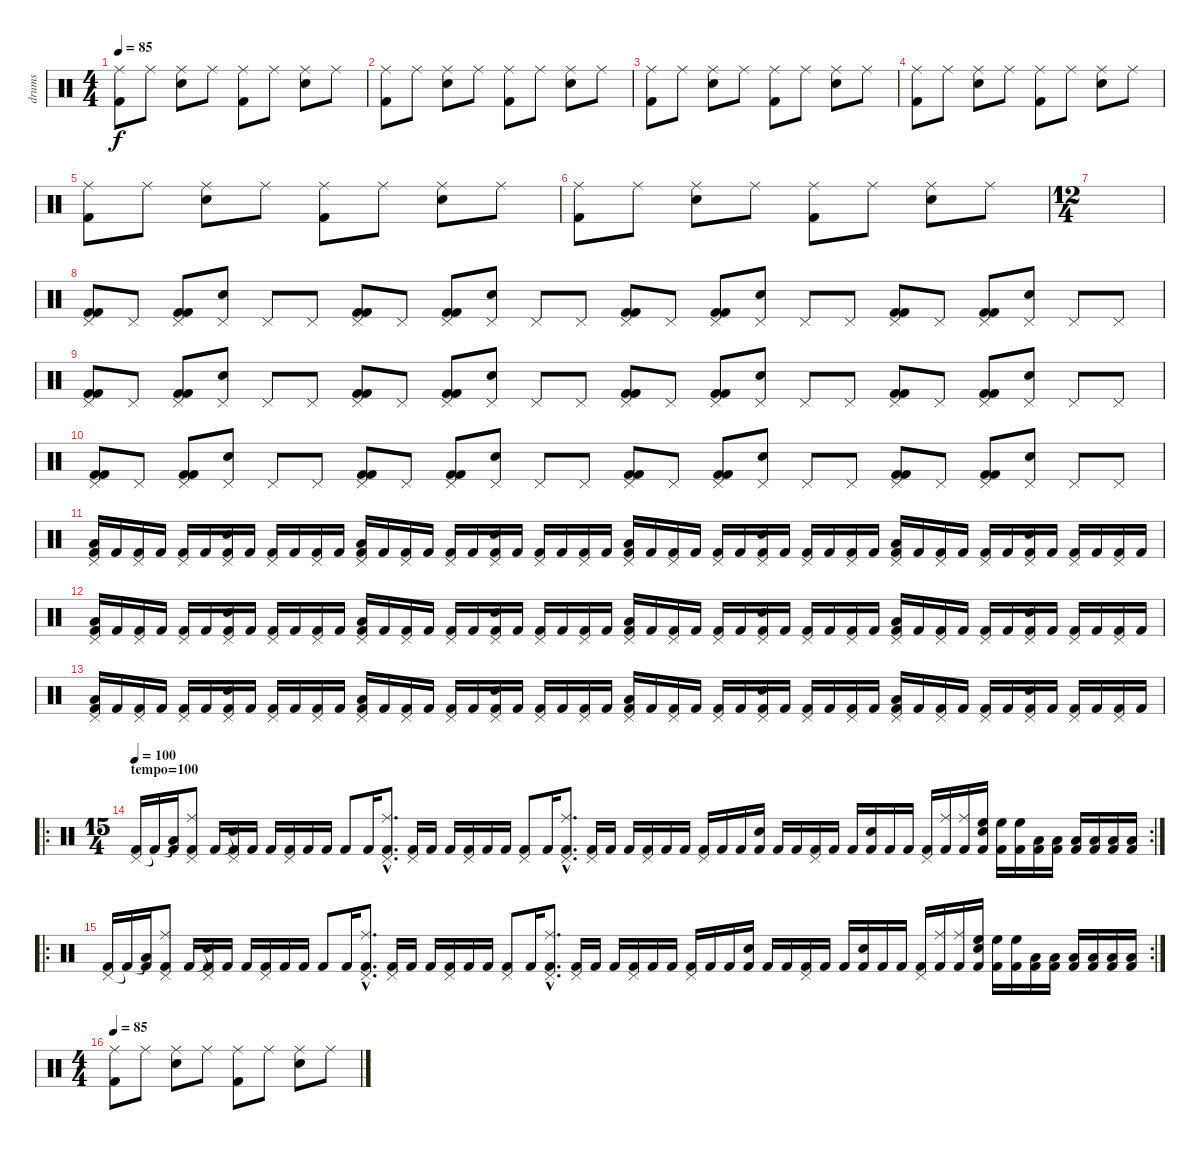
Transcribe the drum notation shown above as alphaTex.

\track ("drums" "drums") {instrument percussion}
\staff {score}
\articulation defaults
\ts (4 4)
\tempo 85
\clef neutral
\ks c
("Ride (middle)" "Kick (hit) 2").8{dy f} "Ride (middle)".8 ("Snare (hit) 2" "Ride (middle)").8 "Ride (middle)".8 ("Ride (middle)" "Kick (hit) 2").8 "Ride (middle)".8 ("Snare (hit) 2" "Ride (middle)").8 "Ride (middle)".8 |
("Ride (middle)" "Kick (hit) 2").8 "Ride (middle)".8 ("Snare (hit) 2" "Ride (middle)").8 "Ride (middle)".8 ("Ride (middle)" "Kick (hit) 2").8 "Ride (middle)".8 ("Snare (hit) 2" "Ride (middle)").8 "Ride (middle)".8 |
("Ride (middle)" "Kick (hit) 2").8 "Ride (middle)".8 ("Snare (hit) 2" "Ride (middle)").8 "Ride (middle)".8 ("Ride (middle)" "Kick (hit) 2").8 "Ride (middle)".8 ("Snare (hit) 2" "Ride (middle)").8 "Ride (middle)".8 |
("Ride (middle)" "Kick (hit) 2").8 "Ride (middle)".8 ("Snare (hit) 2" "Ride (middle)").8 "Ride (middle)".8 ("Ride (middle)" "Kick (hit) 2").8 "Ride (middle)".8 ("Snare (hit) 2" "Ride (middle)").8 "Ride (middle)".8 |
("Ride (middle)" "Kick (hit) 2").8 "Ride (middle)".8 ("Snare (hit) 2" "Ride (middle)").8 "Ride (middle)".8 ("Ride (middle)" "Kick (hit) 2").8 "Ride (middle)".8 ("Snare (hit) 2" "Ride (middle)").8 "Ride (middle)".8 |
("Ride (middle)" "Kick (hit) 2").8 "Ride (middle)".8 ("Snare (hit) 2" "Ride (middle)").8 "Ride (middle)".8 ("Ride (middle)" "Kick (hit) 2").8 "Ride (middle)".8 ("Snare (hit) 2" "Ride (middle)").8 "Ride (middle)".8 |
\ts (12 4)
|
("Pedal Hi-Hat (hit)" "Kick (hit) 2" "Kick (hit) 2").8 "Pedal Hi-Hat (hit)".8 ("Pedal Hi-Hat (hit)" "Kick (hit) 2" "Kick (hit) 2").8 ("Snare (hit) 2" "Pedal Hi-Hat (hit)").8 "Pedal Hi-Hat (hit)".8 "Pedal Hi-Hat (hit)".8 ("Pedal Hi-Hat (hit)" "Kick (hit) 2" "Kick (hit) 2").8 "Pedal Hi-Hat (hit)".8 ("Pedal Hi-Hat (hit)" "Kick (hit) 2" "Kick (hit) 2").8 ("Snare (hit) 2" "Pedal Hi-Hat (hit)").8 "Pedal Hi-Hat (hit)".8 "Pedal Hi-Hat (hit)".8 ("Pedal Hi-Hat (hit)" "Kick (hit) 2" "Kick (hit) 2").8 "Pedal Hi-Hat (hit)".8 ("Pedal Hi-Hat (hit)" "Kick (hit) 2" "Kick (hit) 2").8 ("Snare (hit) 2" "Pedal Hi-Hat (hit)").8 "Pedal Hi-Hat (hit)".8 "Pedal Hi-Hat (hit)".8 ("Pedal Hi-Hat (hit)" "Kick (hit) 2" "Kick (hit) 2").8 "Pedal Hi-Hat (hit)".8 ("Pedal Hi-Hat (hit)" "Kick (hit) 2" "Kick (hit) 2").8 ("Snare (hit) 2" "Pedal Hi-Hat (hit)").8 "Pedal Hi-Hat (hit)".8 "Pedal Hi-Hat (hit)".8 |
("Pedal Hi-Hat (hit)" "Kick (hit) 2" "Kick (hit) 2").8 "Pedal Hi-Hat (hit)".8 ("Pedal Hi-Hat (hit)" "Kick (hit) 2" "Kick (hit) 2").8 ("Snare (hit) 2" "Pedal Hi-Hat (hit)").8 "Pedal Hi-Hat (hit)".8 "Pedal Hi-Hat (hit)".8 ("Pedal Hi-Hat (hit)" "Kick (hit) 2" "Kick (hit) 2").8 "Pedal Hi-Hat (hit)".8 ("Pedal Hi-Hat (hit)" "Kick (hit) 2" "Kick (hit) 2").8 ("Snare (hit) 2" "Pedal Hi-Hat (hit)").8 "Pedal Hi-Hat (hit)".8 "Pedal Hi-Hat (hit)".8 ("Pedal Hi-Hat (hit)" "Kick (hit) 2" "Kick (hit) 2").8 "Pedal Hi-Hat (hit)".8 ("Pedal Hi-Hat (hit)" "Kick (hit) 2" "Kick (hit) 2").8 ("Snare (hit) 2" "Pedal Hi-Hat (hit)").8 "Pedal Hi-Hat (hit)".8 "Pedal Hi-Hat (hit)".8 ("Pedal Hi-Hat (hit)" "Kick (hit) 2" "Kick (hit) 2").8 "Pedal Hi-Hat (hit)".8 ("Pedal Hi-Hat (hit)" "Kick (hit) 2" "Kick (hit) 2").8 ("Snare (hit) 2" "Pedal Hi-Hat (hit)").8 "Pedal Hi-Hat (hit)".8 "Pedal Hi-Hat (hit)".8 |
("Pedal Hi-Hat (hit)" "Kick (hit) 2" "Kick (hit) 2").8 "Pedal Hi-Hat (hit)".8 ("Pedal Hi-Hat (hit)" "Kick (hit) 2" "Kick (hit) 2").8 ("Snare (hit) 2" "Pedal Hi-Hat (hit)").8 "Pedal Hi-Hat (hit)".8 "Pedal Hi-Hat (hit)".8 ("Pedal Hi-Hat (hit)" "Kick (hit) 2" "Kick (hit) 2").8 "Pedal Hi-Hat (hit)".8 ("Pedal Hi-Hat (hit)" "Kick (hit) 2" "Kick (hit) 2").8 ("Snare (hit) 2" "Pedal Hi-Hat (hit)").8 "Pedal Hi-Hat (hit)".8 "Pedal Hi-Hat (hit)".8 ("Pedal Hi-Hat (hit)" "Kick (hit) 2" "Kick (hit) 2").8 "Pedal Hi-Hat (hit)".8 ("Pedal Hi-Hat (hit)" "Kick (hit) 2" "Kick (hit) 2").8 ("Snare (hit) 2" "Pedal Hi-Hat (hit)").8 "Pedal Hi-Hat (hit)".8 "Pedal Hi-Hat (hit)".8 ("Pedal Hi-Hat (hit)" "Kick (hit) 2" "Kick (hit) 2").8 "Pedal Hi-Hat (hit)".8 ("Pedal Hi-Hat (hit)" "Kick (hit) 2" "Kick (hit) 2").8 ("Snare (hit) 2" "Pedal Hi-Hat (hit)").8 "Pedal Hi-Hat (hit)".8 "Pedal Hi-Hat (hit)".8 |
("Pedal Hi-Hat (hit)" "Low Tom (hit)" "Kick (hit) 2").16 "Kick (hit) 2".16 ("Pedal Hi-Hat (hit)" "Kick (hit) 2").16 "Kick (hit) 2".16 ("Pedal Hi-Hat (hit)" "Kick (hit) 2").16 "Kick (hit) 2".16 ("Snare (hit) 2" "Pedal Hi-Hat (hit)" "Kick (hit) 2").16 "Kick (hit) 2".16 ("Pedal Hi-Hat (hit)" "Kick (hit) 2").16 "Kick (hit) 2".16 ("Pedal Hi-Hat (hit)" "Kick (hit) 2").16 "Kick (hit) 2".16 ("Pedal Hi-Hat (hit)" "Low Tom (hit)" "Kick (hit) 2").16 "Kick (hit) 2".16 ("Pedal Hi-Hat (hit)" "Kick (hit) 2").16 "Kick (hit) 2".16 ("Pedal Hi-Hat (hit)" "Kick (hit) 2").16 "Kick (hit) 2".16 ("Snare (hit) 2" "Pedal Hi-Hat (hit)" "Kick (hit) 2").16 "Kick (hit) 2".16 ("Pedal Hi-Hat (hit)" "Kick (hit) 2").16 "Kick (hit) 2".16 ("Pedal Hi-Hat (hit)" "Kick (hit) 2").16 "Kick (hit) 2".16 ("Pedal Hi-Hat (hit)" "Low Tom (hit)" "Kick (hit) 2").16 "Kick (hit) 2".16 ("Pedal Hi-Hat (hit)" "Kick (hit) 2").16 "Kick (hit) 2".16 ("Pedal Hi-Hat (hit)" "Kick (hit) 2").16 "Kick (hit) 2".16 ("Snare (hit) 2" "Pedal Hi-Hat (hit)" "Kick (hit) 2").16 "Kick (hit) 2".16 ("Pedal Hi-Hat (hit)" "Kick (hit) 2").16 "Kick (hit) 2".16 ("Pedal Hi-Hat (hit)" "Kick (hit) 2").16 "Kick (hit) 2".16 ("Pedal Hi-Hat (hit)" "Low Tom (hit)" "Kick (hit) 2").16 "Kick (hit) 2".16 ("Pedal Hi-Hat (hit)" "Kick (hit) 2").16 "Kick (hit) 2".16 ("Pedal Hi-Hat (hit)" "Kick (hit) 2").16 "Kick (hit) 2".16 ("Snare (hit) 2" "Pedal Hi-Hat (hit)" "Kick (hit) 2").16 "Kick (hit) 2".16 ("Pedal Hi-Hat (hit)" "Kick (hit) 2").16 "Kick (hit) 2".16 ("Pedal Hi-Hat (hit)" "Kick (hit) 2").16 "Kick (hit) 2".16 |
("Pedal Hi-Hat (hit)" "Low Tom (hit)" "Kick (hit) 2").16 "Kick (hit) 2".16 ("Pedal Hi-Hat (hit)" "Kick (hit) 2").16 "Kick (hit) 2".16 ("Pedal Hi-Hat (hit)" "Kick (hit) 2").16 "Kick (hit) 2".16 ("Snare (hit) 2" "Pedal Hi-Hat (hit)" "Kick (hit) 2").16 "Kick (hit) 2".16 ("Pedal Hi-Hat (hit)" "Kick (hit) 2").16 "Kick (hit) 2".16 ("Pedal Hi-Hat (hit)" "Kick (hit) 2").16 "Kick (hit) 2".16 ("Pedal Hi-Hat (hit)" "Low Tom (hit)" "Kick (hit) 2").16 "Kick (hit) 2".16 ("Pedal Hi-Hat (hit)" "Kick (hit) 2").16 "Kick (hit) 2".16 ("Pedal Hi-Hat (hit)" "Kick (hit) 2").16 "Kick (hit) 2".16 ("Snare (hit) 2" "Pedal Hi-Hat (hit)" "Kick (hit) 2").16 "Kick (hit) 2".16 ("Pedal Hi-Hat (hit)" "Kick (hit) 2").16 "Kick (hit) 2".16 ("Pedal Hi-Hat (hit)" "Kick (hit) 2").16 "Kick (hit) 2".16 ("Pedal Hi-Hat (hit)" "Low Tom (hit)" "Kick (hit) 2").16 "Kick (hit) 2".16 ("Pedal Hi-Hat (hit)" "Kick (hit) 2").16 "Kick (hit) 2".16 ("Pedal Hi-Hat (hit)" "Kick (hit) 2").16 "Kick (hit) 2".16 ("Snare (hit) 2" "Pedal Hi-Hat (hit)" "Kick (hit) 2").16 "Kick (hit) 2".16 ("Pedal Hi-Hat (hit)" "Kick (hit) 2").16 "Kick (hit) 2".16 ("Pedal Hi-Hat (hit)" "Kick (hit) 2").16 "Kick (hit) 2".16 ("Pedal Hi-Hat (hit)" "Low Tom (hit)" "Kick (hit) 2").16 "Kick (hit) 2".16 ("Pedal Hi-Hat (hit)" "Kick (hit) 2").16 "Kick (hit) 2".16 ("Pedal Hi-Hat (hit)" "Kick (hit) 2").16 "Kick (hit) 2".16 ("Snare (hit) 2" "Pedal Hi-Hat (hit)" "Kick (hit) 2").16 "Kick (hit) 2".16 ("Pedal Hi-Hat (hit)" "Kick (hit) 2").16 "Kick (hit) 2".16 ("Pedal Hi-Hat (hit)" "Kick (hit) 2").16 "Kick (hit) 2".16 |
("Pedal Hi-Hat (hit)" "Low Tom (hit)" "Kick (hit) 2").16 "Kick (hit) 2".16 ("Pedal Hi-Hat (hit)" "Kick (hit) 2").16 "Kick (hit) 2".16 ("Pedal Hi-Hat (hit)" "Kick (hit) 2").16 "Kick (hit) 2".16 ("Snare (hit) 2" "Pedal Hi-Hat (hit)" "Kick (hit) 2").16 "Kick (hit) 2".16 ("Pedal Hi-Hat (hit)" "Kick (hit) 2").16 "Kick (hit) 2".16 ("Pedal Hi-Hat (hit)" "Kick (hit) 2").16 "Kick (hit) 2".16 ("Pedal Hi-Hat (hit)" "Low Tom (hit)" "Kick (hit) 2").16 "Kick (hit) 2".16 ("Pedal Hi-Hat (hit)" "Kick (hit) 2").16 "Kick (hit) 2".16 ("Pedal Hi-Hat (hit)" "Kick (hit) 2").16 "Kick (hit) 2".16 ("Snare (hit) 2" "Pedal Hi-Hat (hit)" "Kick (hit) 2").16 "Kick (hit) 2".16 ("Pedal Hi-Hat (hit)" "Kick (hit) 2").16 "Kick (hit) 2".16 ("Pedal Hi-Hat (hit)" "Kick (hit) 2").16 "Kick (hit) 2".16 ("Pedal Hi-Hat (hit)" "Low Tom (hit)" "Kick (hit) 2").16 "Kick (hit) 2".16 ("Pedal Hi-Hat (hit)" "Kick (hit) 2").16 "Kick (hit) 2".16 ("Pedal Hi-Hat (hit)" "Kick (hit) 2").16 "Kick (hit) 2".16 ("Snare (hit) 2" "Pedal Hi-Hat (hit)" "Kick (hit) 2").16 "Kick (hit) 2".16 ("Pedal Hi-Hat (hit)" "Kick (hit) 2").16 "Kick (hit) 2".16 ("Pedal Hi-Hat (hit)" "Kick (hit) 2").16 "Kick (hit) 2".16 ("Pedal Hi-Hat (hit)" "Low Tom (hit)" "Kick (hit) 2").16 "Kick (hit) 2".16 ("Pedal Hi-Hat (hit)" "Kick (hit) 2").16 "Kick (hit) 2".16 ("Pedal Hi-Hat (hit)" "Kick (hit) 2").16 "Kick (hit) 2".16 ("Snare (hit) 2" "Pedal Hi-Hat (hit)" "Kick (hit) 2").16 "Kick (hit) 2".16 ("Pedal Hi-Hat (hit)" "Kick (hit) 2").16 "Kick (hit) 2".16 ("Pedal Hi-Hat (hit)" "Kick (hit) 2").16 "Kick (hit) 2".16 |
\ro
\rc 2
\ts (15 4)
\section ("" "tempo=100")
\tempo 100
("Pedal Hi-Hat (hit)" "Kick (hit) 2").16 "Kick (hit) 2"{t}.16 ("Low Floor Tom (hit)"{t} "Kick (hit) 2").16 ("Ride (middle)" "Pedal Hi-Hat (hit)" "Kick (hit) 2").8 "Kick (hit) 2".16 ("Snare (hit)"{t} "Pedal Hi-Hat (hit)" "Kick (hit) 2").16 "Kick (hit) 2".16 "Kick (hit) 2".16 ("Pedal Hi-Hat (hit)" "Kick (hit) 2").16 "Kick (hit) 2".16 "Kick (hit) 2".16 "Kick (hit) 2".8 "Kick (hit) 2".16 ("Ride (middle)"{hac} "Pedal Hi-Hat (hit)"{hac} "Kick (hit) 2"{hac}).8{d} ("Pedal Hi-Hat (hit)" "Kick (hit) 2").16 "Kick (hit) 2".16 "Kick (hit) 2".16 ("Pedal Hi-Hat (hit)" "Kick (hit) 2").16 "Kick (hit) 2".16 "Kick (hit) 2".16 ("Pedal Hi-Hat (hit)" "Kick (hit) 2").8 "Kick (hit) 2".16 ("Ride (middle)"{hac} "Pedal Hi-Hat (hit)"{hac} "Kick (hit) 2"{hac}).8{d} ("Pedal Hi-Hat (hit)" "Kick (hit) 2").16 "Kick (hit) 2".16 "Kick (hit) 2".16 ("Pedal Hi-Hat (hit)" "Kick (hit) 2").16 "Kick (hit) 2".16 "Kick (hit) 2".16 ("Pedal Hi-Hat (hit)" "Kick (hit) 2").16 "Kick (hit) 2".16 "Kick (hit) 2".16 ("Snare (hit) 2" "Kick (hit) 2").16 "Kick (hit) 2".16 "Kick (hit) 2".16 ("Pedal Hi-Hat (hit)" "Kick (hit) 2").16 "Kick (hit) 2".16 "Kick (hit) 2".16 ("Snare (hit) 2" "Kick (hit) 2").16 "Kick (hit) 2".16 "Kick (hit) 2".16 ("Pedal Hi-Hat (hit)" "Kick (hit) 2").16 ("Ride (middle)" "Kick (hit) 2").16 ("Ride (middle)" "Kick (hit) 2").16 ("Snare (hit) 2" "High Floor Tom (hit)" "Kick (hit) 2").16 ("High Floor Tom (hit)" "Kick (hit) 2").16 ("High Floor Tom (hit)" "Kick (hit) 2").16 ("Low Tom (hit)" "Kick (hit) 2").16 ("Low Tom (hit)" "Kick (hit) 2").16 ("Low Tom (hit)" "Kick (hit) 2").16 ("Low Floor Tom (hit)" "Kick (hit) 2").16 ("Low Floor Tom (hit)" "Kick (hit) 2").16 ("Low Floor Tom (hit)" "Kick (hit) 2").16 |
\ro
\rc 2
("Pedal Hi-Hat (hit)" "Kick (hit) 2").16 "Kick (hit) 2"{t}.16 ("Low Floor Tom (hit)"{t} "Kick (hit) 2").16 ("Ride (middle)" "Pedal Hi-Hat (hit)" "Kick (hit) 2").8 "Kick (hit) 2".16 ("Snare (hit)"{t} "Pedal Hi-Hat (hit)" "Kick (hit) 2").16 "Kick (hit) 2".16 "Kick (hit) 2".16 ("Pedal Hi-Hat (hit)" "Kick (hit) 2").16 "Kick (hit) 2".16 "Kick (hit) 2".16 "Kick (hit) 2".8 "Kick (hit) 2".16 ("Ride (middle)"{hac} "Pedal Hi-Hat (hit)"{hac} "Kick (hit) 2"{hac}).8{d} ("Pedal Hi-Hat (hit)" "Kick (hit) 2").16 "Kick (hit) 2".16 "Kick (hit) 2".16 ("Pedal Hi-Hat (hit)" "Kick (hit) 2").16 "Kick (hit) 2".16 "Kick (hit) 2".16 ("Pedal Hi-Hat (hit)" "Kick (hit) 2").8 "Kick (hit) 2".16 ("Ride (middle)"{hac} "Pedal Hi-Hat (hit)"{hac} "Kick (hit) 2"{hac}).8{d} ("Pedal Hi-Hat (hit)" "Kick (hit) 2").16 "Kick (hit) 2".16 "Kick (hit) 2".16 ("Pedal Hi-Hat (hit)" "Kick (hit) 2").16 "Kick (hit) 2".16 "Kick (hit) 2".16 ("Pedal Hi-Hat (hit)" "Kick (hit) 2").16 "Kick (hit) 2".16 "Kick (hit) 2".16 ("Snare (hit) 2" "Kick (hit) 2").16 "Kick (hit) 2".16 "Kick (hit) 2".16 ("Pedal Hi-Hat (hit)" "Kick (hit) 2").16 "Kick (hit) 2".16 "Kick (hit) 2".16 ("Snare (hit) 2" "Kick (hit) 2").16 "Kick (hit) 2".16 "Kick (hit) 2".16 ("Pedal Hi-Hat (hit)" "Kick (hit) 2").16 ("Ride (middle)" "Kick (hit) 2").16 ("Ride (middle)" "Kick (hit) 2").16 ("Snare (hit) 2" "High Floor Tom (hit)" "Kick (hit) 2").16 ("High Floor Tom (hit)" "Kick (hit) 2").16 ("High Floor Tom (hit)" "Kick (hit) 2").16 ("Low Tom (hit)" "Kick (hit) 2").16 ("Low Tom (hit)" "Kick (hit) 2").16 ("Low Tom (hit)" "Kick (hit) 2").16 ("Low Floor Tom (hit)" "Kick (hit) 2").16 ("Low Floor Tom (hit)" "Kick (hit) 2").16 ("Low Floor Tom (hit)" "Kick (hit) 2").16 |
\ts (4 4)
\tempo 85
("Ride (middle)" "Kick (hit) 2").8 "Ride (middle)".8 ("Snare (hit) 2" "Ride (middle)").8 "Ride (middle)".8 ("Ride (middle)" "Kick (hit) 2").8 "Ride (middle)".8 ("Snare (hit) 2" "Ride (middle)").8 "Ride (middle)".8
